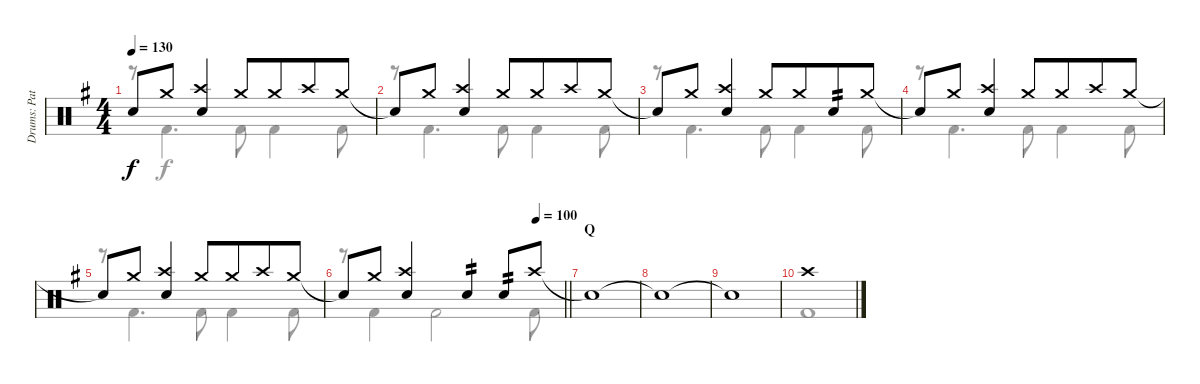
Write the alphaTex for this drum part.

\track ("Drums: Pat" "Drums: Pat") {instrument percussion}
\staff {score}
\articulation defaults
\voice
\ts (4 4)
\tempo 130
\clef neutral
\ks g "Snare (hit)"{t}.8{dy f} "Crash medium (hit)".8
("Crash high (hit)" "Snare (hit) 2").4 "Crash medium (hit)".8 "Crash medium (hit)".8{beam merge} "Crash high (hit)".8 "Crash medium (hit)".8 |
"Snare (hit)"{t}.8 "Crash medium (hit)".8 ("Crash high (hit)" "Snare (hit) 2").4 "Crash medium (hit)".8 "Crash medium (hit)".8{beam merge} "Crash high (hit)".8 "Crash medium (hit)".8 |
"Snare (hit)"{t}.8 "Crash medium (hit)".8 ("Crash high (hit)" "Snare (hit) 2").4 "Crash medium (hit)".8 "Crash medium (hit)".8{beam merge} "Snare (hit) 2".8{tp 2} "Crash medium (hit)".8 |
"Snare (hit)"{t}.8 "Crash medium (hit)".8 ("Crash high (hit)" "Snare (hit) 2").4 "Crash medium (hit)".8 "Crash medium (hit)".8{beam merge} "Crash high (hit)".8 "Crash medium (hit)".8 |
"Snare (hit)"{t}.8 "Crash medium (hit)".8 ("Crash high (hit)" "Snare (hit) 2").4 "Crash medium (hit)".8 "Crash medium (hit)".8{beam merge} "Crash high (hit)".8 "Crash medium (hit)".8 |
\tempo (100 0.875)
\barLineRight lightlight "Snare (hit)"{t}.8 "Crash medium (hit)".8
("Crash high (hit)" "Snare (hit) 2").4 "Snare (hit) 2".4{tp 2} "Snare (hit) 2".8{tp 2} "Crash high (hit)".8 |
\section ("" "Q")
"Snare (hit)"{t}.1 |
"Snare (hit)"{t}.1 |
"Snare (hit)"{t}.1 |
"Crash high (hit)".1
\voice
\clef neutral
\ottava regular
\simile none
\ks g
r.8{dy f} "Kick (hit) 2".4{d} "Kick (hit) 2".8 "Kick (hit) 2".4 "Kick (hit) 2".8 |
r.8 "Kick (hit) 2".4{d} "Kick (hit) 2".8 "Kick (hit) 2".4 "Kick (hit) 2".8 |
r.8 "Kick (hit) 2".4{d} "Kick (hit) 2".8 "Kick (hit) 2".4 "Kick (hit) 2".8 |
r.8 "Kick (hit) 2".4{d} "Kick (hit) 2".8 "Kick (hit) 2".4 "Kick (hit) 2".8 |
r.8 "Kick (hit) 2".4{d} "Kick (hit) 2".8 "Kick (hit) 2".4 "Kick (hit) 2".8 |
\barLineRight lightlight
r.8 "Kick (hit) 2".4 "Kick (hit) 2".2 "Kick (hit) 2".8 |
|
|
|
"Kick (hit) 2".1
